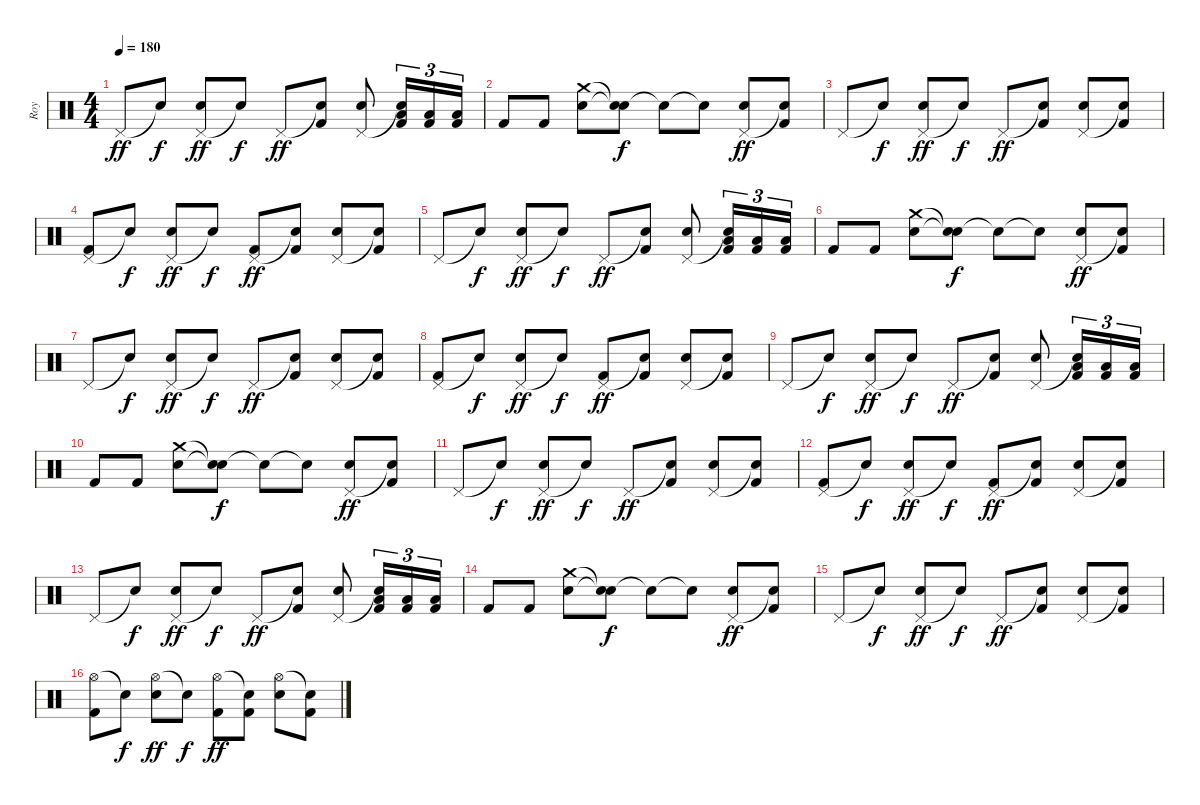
\track ("Roy" "Roy") {instrument percussion}
\staff {score}
\articulation defaults
\ts (4 4)
\tempo 180
\clef neutral
\ks c "Pedal Hi-Hat (hit)".8{dy ff} "Snare (hit)"{t}.8{dy f}
("Pedal Hi-Hat (hit)" "Electric Snare (hit)").8{dy ff} "Snare (hit)"{t}.8{dy f} "Pedal Hi-Hat (hit)".8{dy ff} ("Snare (hit)"{t} "Kick (hit) 2").8 ("Pedal Hi-Hat (hit)" "Electric Snare (hit)").8 ("Snare (hit)"{t} "Low Tom (hit)" "Kick (hit) 2").16{tu (3 2)} ("Low Tom (hit)" "Kick (hit) 2").16{tu (3 2)} ("Low Tom (hit)" "Kick (hit) 2").16{tu (3 2)} |
"Kick (hit) 2".8 "Kick (hit) 2".8 ("Crash medium (hit)" "Electric Snare (hit)").8 ("Snare (hit)"{t} "Snare (hit)"{t}).8{dy f} "Snare (hit)"{t}.8 "Snare (hit)"{t}.8 ("Pedal Hi-Hat (hit)" "Electric Snare (hit)").8{dy ff} ("Snare (hit)"{t} "Kick (hit) 2").8 |
"Pedal Hi-Hat (hit)".8 "Snare (hit)"{t}.8{dy f} ("Pedal Hi-Hat (hit)" "Electric Snare (hit)").8{dy ff} "Snare (hit)"{t}.8{dy f} "Pedal Hi-Hat (hit)".8{dy ff} ("Snare (hit)"{t} "Kick (hit) 2").8 ("Pedal Hi-Hat (hit)" "Electric Snare (hit)").8 ("Snare (hit)"{t} "Kick (hit) 2").8 |
("Pedal Hi-Hat (hit)" "Kick (hit) 2").8 "Snare (hit)"{t}.8{dy f} ("Pedal Hi-Hat (hit)" "Electric Snare (hit)").8{dy ff} "Snare (hit)"{t}.8{dy f} ("Pedal Hi-Hat (hit)" "Kick (hit) 2").8{dy ff} ("Snare (hit)"{t} "Kick (hit) 2").8 ("Pedal Hi-Hat (hit)" "Electric Snare (hit)").8 ("Snare (hit)"{t} "Kick (hit) 2").8 |
"Pedal Hi-Hat (hit)".8 "Snare (hit)"{t}.8{dy f} ("Pedal Hi-Hat (hit)" "Electric Snare (hit)").8{dy ff} "Snare (hit)"{t}.8{dy f} "Pedal Hi-Hat (hit)".8{dy ff} ("Snare (hit)"{t} "Kick (hit) 2").8 ("Pedal Hi-Hat (hit)" "Electric Snare (hit)").8 ("Snare (hit)"{t} "Low Tom (hit)" "Kick (hit) 2").16{tu (3 2)} ("Low Tom (hit)" "Kick (hit) 2").16{tu (3 2)} ("Low Tom (hit)" "Kick (hit) 2").16{tu (3 2)} |
"Kick (hit) 2".8 "Kick (hit) 2".8 ("Crash medium (hit)" "Electric Snare (hit)").8 ("Snare (hit)"{t} "Snare (hit)"{t}).8{dy f} "Snare (hit)"{t}.8 "Snare (hit)"{t}.8 ("Pedal Hi-Hat (hit)" "Electric Snare (hit)").8{dy ff} ("Snare (hit)"{t} "Kick (hit) 2").8 |
"Pedal Hi-Hat (hit)".8 "Snare (hit)"{t}.8{dy f} ("Pedal Hi-Hat (hit)" "Electric Snare (hit)").8{dy ff} "Snare (hit)"{t}.8{dy f} "Pedal Hi-Hat (hit)".8{dy ff} ("Snare (hit)"{t} "Kick (hit) 2").8 ("Pedal Hi-Hat (hit)" "Electric Snare (hit)").8 ("Snare (hit)"{t} "Kick (hit) 2").8 |
("Pedal Hi-Hat (hit)" "Kick (hit) 2").8 "Snare (hit)"{t}.8{dy f} ("Pedal Hi-Hat (hit)" "Electric Snare (hit)").8{dy ff} "Snare (hit)"{t}.8{dy f} ("Pedal Hi-Hat (hit)" "Kick (hit) 2").8{dy ff} ("Snare (hit)"{t} "Kick (hit) 2").8 ("Pedal Hi-Hat (hit)" "Electric Snare (hit)").8 ("Snare (hit)"{t} "Kick (hit) 2").8 |
"Pedal Hi-Hat (hit)".8 "Snare (hit)"{t}.8{dy f} ("Pedal Hi-Hat (hit)" "Electric Snare (hit)").8{dy ff} "Snare (hit)"{t}.8{dy f} "Pedal Hi-Hat (hit)".8{dy ff} ("Snare (hit)"{t} "Kick (hit) 2").8 ("Pedal Hi-Hat (hit)" "Electric Snare (hit)").8 ("Snare (hit)"{t} "Low Tom (hit)" "Kick (hit) 2").16{tu (3 2)} ("Low Tom (hit)" "Kick (hit) 2").16{tu (3 2)} ("Low Tom (hit)" "Kick (hit) 2").16{tu (3 2)} |
"Kick (hit) 2".8 "Kick (hit) 2".8 ("Crash medium (hit)" "Electric Snare (hit)").8 ("Snare (hit)"{t} "Snare (hit)"{t}).8{dy f} "Snare (hit)"{t}.8 "Snare (hit)"{t}.8 ("Pedal Hi-Hat (hit)" "Electric Snare (hit)").8{dy ff} ("Snare (hit)"{t} "Kick (hit) 2").8 |
"Pedal Hi-Hat (hit)".8 "Snare (hit)"{t}.8{dy f} ("Pedal Hi-Hat (hit)" "Electric Snare (hit)").8{dy ff} "Snare (hit)"{t}.8{dy f} "Pedal Hi-Hat (hit)".8{dy ff} ("Snare (hit)"{t} "Kick (hit) 2").8 ("Pedal Hi-Hat (hit)" "Electric Snare (hit)").8 ("Snare (hit)"{t} "Kick (hit) 2").8 |
("Pedal Hi-Hat (hit)" "Kick (hit) 2").8 "Snare (hit)"{t}.8{dy f} ("Pedal Hi-Hat (hit)" "Electric Snare (hit)").8{dy ff} "Snare (hit)"{t}.8{dy f} ("Pedal Hi-Hat (hit)" "Kick (hit) 2").8{dy ff} ("Snare (hit)"{t} "Kick (hit) 2").8 ("Pedal Hi-Hat (hit)" "Electric Snare (hit)").8 ("Snare (hit)"{t} "Kick (hit) 2").8 |
"Pedal Hi-Hat (hit)".8 "Snare (hit)"{t}.8{dy f} ("Pedal Hi-Hat (hit)" "Electric Snare (hit)").8{dy ff} "Snare (hit)"{t}.8{dy f} "Pedal Hi-Hat (hit)".8{dy ff} ("Snare (hit)"{t} "Kick (hit) 2").8 ("Pedal Hi-Hat (hit)" "Electric Snare (hit)").8 ("Snare (hit)"{t} "Low Tom (hit)" "Kick (hit) 2").16{tu (3 2)} ("Low Tom (hit)" "Kick (hit) 2").16{tu (3 2)} ("Low Tom (hit)" "Kick (hit) 2").16{tu (3 2)} |
"Kick (hit) 2".8 "Kick (hit) 2".8 ("Crash medium (hit)" "Electric Snare (hit)").8 ("Snare (hit)"{t} "Snare (hit)"{t}).8{dy f} "Snare (hit)"{t}.8 "Snare (hit)"{t}.8 ("Pedal Hi-Hat (hit)" "Electric Snare (hit)").8{dy ff} ("Snare (hit)"{t} "Kick (hit) 2").8 |
"Pedal Hi-Hat (hit)".8 "Snare (hit)"{t}.8{dy f} ("Pedal Hi-Hat (hit)" "Electric Snare (hit)").8{dy ff} "Snare (hit)"{t}.8{dy f} "Pedal Hi-Hat (hit)".8{dy ff} ("Snare (hit)"{t} "Kick (hit) 2").8 ("Pedal Hi-Hat (hit)" "Electric Snare (hit)").8 ("Snare (hit)"{t} "Kick (hit) 2").8 |
("Hi-Hat (open)" "Kick (hit) 2").8 "Snare (hit)"{t}.8{dy f} ("Hi-Hat (open)" "Electric Snare (hit)").8{dy ff} "Snare (hit)"{t}.8{dy f} ("Hi-Hat (open)" "Kick (hit) 2").8{dy ff} ("Snare (hit)"{t} "Kick (hit) 2").8 ("Hi-Hat (open)" "Electric Snare (hit)").8 ("Snare (hit)"{t} "Kick (hit) 2").8
